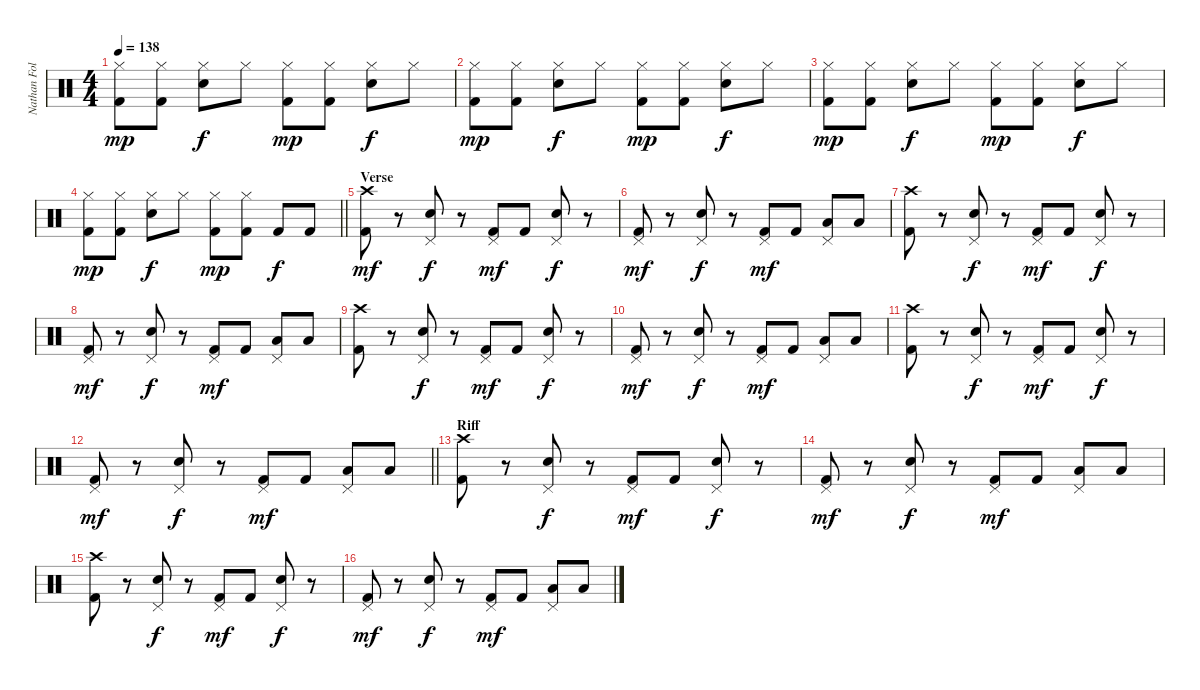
\track ("Nathan Followill" "Nathan Fol") {instrument percussion}
\staff {score}
\articulation defaults
\ts (4 4)
\tempo 138
\clef neutral
\ks c
("Hi-Hat (closed)" "Kick (hit) 2").8{dy mp} ("Hi-Hat (closed)" "Kick (hit) 2").8 ("Hi-Hat (closed)" "Snare (hit) 2").8{dy f} "Hi-Hat (closed)".8 ("Hi-Hat (closed)" "Kick (hit) 2").8{dy mp} ("Hi-Hat (closed)" "Kick (hit) 2").8 ("Hi-Hat (closed)" "Snare (hit) 2").8{dy f} "Hi-Hat (closed)".8 |
("Hi-Hat (closed)" "Kick (hit) 2").8{dy mp} ("Hi-Hat (closed)" "Kick (hit) 2").8 ("Hi-Hat (closed)" "Snare (hit) 2").8{dy f} "Hi-Hat (closed)".8 ("Hi-Hat (closed)" "Kick (hit) 2").8{dy mp} ("Hi-Hat (closed)" "Kick (hit) 2").8 ("Hi-Hat (closed)" "Snare (hit) 2").8{dy f} "Hi-Hat (closed)".8 |
("Hi-Hat (closed)" "Kick (hit) 2").8{dy mp} ("Hi-Hat (closed)" "Kick (hit) 2").8 ("Hi-Hat (closed)" "Snare (hit) 2").8{dy f} "Hi-Hat (closed)".8 ("Hi-Hat (closed)" "Kick (hit) 2").8{dy mp} ("Hi-Hat (closed)" "Kick (hit) 2").8 ("Hi-Hat (closed)" "Snare (hit) 2").8{dy f} "Hi-Hat (closed)".8 |
\barLineRight lightlight
("Hi-Hat (closed)" "Kick (hit) 2").8{dy mp} ("Hi-Hat (closed)" "Kick (hit) 2").8 ("Hi-Hat (closed)" "Snare (hit) 2").8{dy f} "Hi-Hat (closed)".8 ("Hi-Hat (closed)" "Kick (hit) 2").8{dy mp} ("Hi-Hat (closed)" "Kick (hit) 2").8 "Kick (hit) 2".8{dy f} "Kick (hit) 2".8 |
\section ("" "Verse ")
("Crash high (hit)" "Kick (hit) 2").8{dy mf} r.8 ("Pedal Hi-Hat (hit)" "Snare (hit) 2").8{dy f} r.8 ("Pedal Hi-Hat (hit)" "Kick (hit) 2").8{dy mf} "Kick (hit) 2".8 ("Pedal Hi-Hat (hit)" "Snare (hit) 2").8{dy f} r.8 |
("Pedal Hi-Hat (hit)" "Kick (hit) 2").8{dy mf} r.8 ("Pedal Hi-Hat (hit)" "Snare (hit) 2").8{dy f} r.8 ("Pedal Hi-Hat (hit)" "Kick (hit) 2").8{dy mf} "Kick (hit) 2".8 ("Pedal Hi-Hat (hit)" "Low Floor Tom (hit)").8 "Low Floor Tom (hit)".8 |
("Crash high (hit)" "Kick (hit) 2").8 r.8 ("Pedal Hi-Hat (hit)" "Snare (hit) 2").8{dy f} r.8 ("Pedal Hi-Hat (hit)" "Kick (hit) 2").8{dy mf} "Kick (hit) 2".8 ("Pedal Hi-Hat (hit)" "Snare (hit) 2").8{dy f} r.8 |
("Pedal Hi-Hat (hit)" "Kick (hit) 2").8{dy mf} r.8 ("Pedal Hi-Hat (hit)" "Snare (hit) 2").8{dy f} r.8 ("Pedal Hi-Hat (hit)" "Kick (hit) 2").8{dy mf} "Kick (hit) 2".8 ("Pedal Hi-Hat (hit)" "Low Floor Tom (hit)").8 "Low Floor Tom (hit)".8 |
("Crash high (hit)" "Kick (hit) 2").8 r.8 ("Pedal Hi-Hat (hit)" "Snare (hit) 2").8{dy f} r.8 ("Pedal Hi-Hat (hit)" "Kick (hit) 2").8{dy mf} "Kick (hit) 2".8 ("Pedal Hi-Hat (hit)" "Snare (hit) 2").8{dy f} r.8 |
("Pedal Hi-Hat (hit)" "Kick (hit) 2").8{dy mf} r.8 ("Pedal Hi-Hat (hit)" "Snare (hit) 2").8{dy f} r.8 ("Pedal Hi-Hat (hit)" "Kick (hit) 2").8{dy mf} "Kick (hit) 2".8 ("Pedal Hi-Hat (hit)" "Low Floor Tom (hit)").8 "Low Floor Tom (hit)".8 |
("Crash high (hit)" "Kick (hit) 2").8 r.8 ("Pedal Hi-Hat (hit)" "Snare (hit) 2").8{dy f} r.8 ("Pedal Hi-Hat (hit)" "Kick (hit) 2").8{dy mf} "Kick (hit) 2".8 ("Pedal Hi-Hat (hit)" "Snare (hit) 2").8{dy f} r.8 |
\barLineRight lightlight
("Pedal Hi-Hat (hit)" "Kick (hit) 2").8{dy mf} r.8 ("Pedal Hi-Hat (hit)" "Snare (hit) 2").8{dy f} r.8 ("Pedal Hi-Hat (hit)" "Kick (hit) 2").8{dy mf} "Kick (hit) 2".8 ("Pedal Hi-Hat (hit)" "Low Floor Tom (hit)").8 "Low Floor Tom (hit)".8 |
\section ("" "Riff")
("Crash high (hit)" "Kick (hit) 2").8 r.8 ("Pedal Hi-Hat (hit)" "Snare (hit) 2").8{dy f} r.8 ("Pedal Hi-Hat (hit)" "Kick (hit) 2").8{dy mf} "Kick (hit) 2".8 ("Pedal Hi-Hat (hit)" "Snare (hit) 2").8{dy f} r.8 |
("Pedal Hi-Hat (hit)" "Kick (hit) 2").8{dy mf} r.8 ("Pedal Hi-Hat (hit)" "Snare (hit) 2").8{dy f} r.8 ("Pedal Hi-Hat (hit)" "Kick (hit) 2").8{dy mf} "Kick (hit) 2".8 ("Pedal Hi-Hat (hit)" "Low Floor Tom (hit)").8 "Low Floor Tom (hit)".8 |
("Crash high (hit)" "Kick (hit) 2").8 r.8 ("Pedal Hi-Hat (hit)" "Snare (hit) 2").8{dy f} r.8 ("Pedal Hi-Hat (hit)" "Kick (hit) 2").8{dy mf} "Kick (hit) 2".8 ("Pedal Hi-Hat (hit)" "Snare (hit) 2").8{dy f} r.8 |
("Pedal Hi-Hat (hit)" "Kick (hit) 2").8{dy mf} r.8 ("Pedal Hi-Hat (hit)" "Snare (hit) 2").8{dy f} r.8 ("Pedal Hi-Hat (hit)" "Kick (hit) 2").8{dy mf} "Kick (hit) 2".8 ("Pedal Hi-Hat (hit)" "Low Floor Tom (hit)").8 "Low Floor Tom (hit)".8
